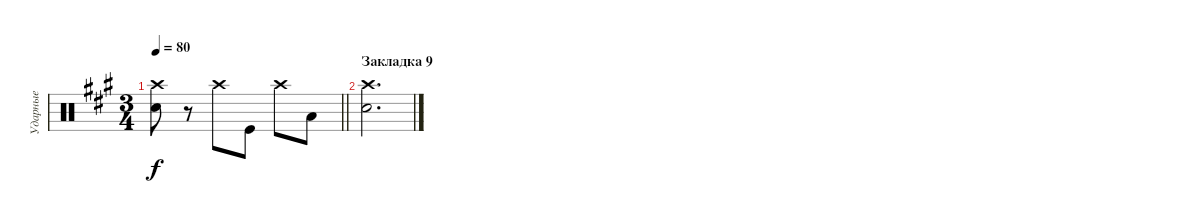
\track ("Ударные" "Ударные") {instrument percussion}
\staff {score}
\articulation defaults
\ts (3 4)
\tempo 80
\clef neutral
\barLineRight lightlight
\ks f#minor
("Snare (hit) 2" "Crash high (hit)").8{dy f} r.8 "Crash high (hit)".8 "Kick (hit)".8 "Crash high (hit)".8 "Low Tom (hit)".8 |
\section ("" "Закладка 9")
("Snare (hit) 2" "Crash high (hit)").2{d}
